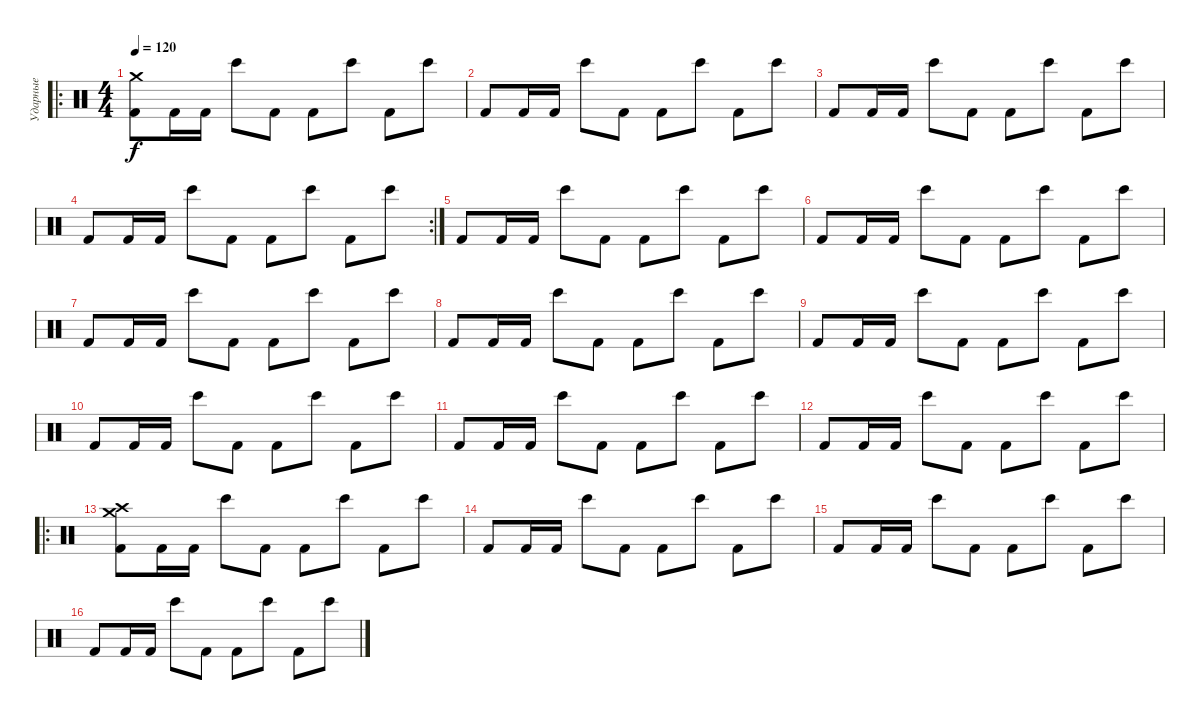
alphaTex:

\track ("Ударные" "Ударные") {instrument percussion}
\staff {score}
\articulation defaults
\ro
\ts (4 4)
\tempo 120
\clef neutral
\ks c
("Kick (hit) 2" "Crash medium (hit)").8{dy f} "Kick (hit) 2".16 "Kick (hit) 2".16 "Bongo High (hit)".8 "Kick (hit) 2".8 "Kick (hit) 2".8 "Bongo High (hit)".8 "Kick (hit) 2".8 "Bongo High (hit)".8 |
"Kick (hit) 2".8 "Kick (hit) 2".16 "Kick (hit) 2".16 "Bongo High (hit)".8 "Kick (hit) 2".8 "Kick (hit) 2".8 "Bongo High (hit)".8 "Kick (hit) 2".8 "Bongo High (hit)".8 |
"Kick (hit) 2".8 "Kick (hit) 2".16 "Kick (hit) 2".16 "Bongo High (hit)".8 "Kick (hit) 2".8 "Kick (hit) 2".8 "Bongo High (hit)".8 "Kick (hit) 2".8 "Bongo High (hit)".8 |
\rc 2 "Kick (hit) 2".8 "Kick (hit) 2".16 "Kick (hit) 2".16 "Bongo High (hit)".8 "Kick (hit) 2".8 "Kick (hit) 2".8 "Bongo High (hit)".8 "Kick (hit) 2".8 "Bongo High (hit)".8
|
"Kick (hit) 2".8 "Kick (hit) 2".16 "Kick (hit) 2".16 "Bongo High (hit)".8 "Kick (hit) 2".8 "Kick (hit) 2".8 "Bongo High (hit)".8 "Kick (hit) 2".8 "Bongo High (hit)".8 |
"Kick (hit) 2".8 "Kick (hit) 2".16 "Kick (hit) 2".16 "Bongo High (hit)".8 "Kick (hit) 2".8 "Kick (hit) 2".8 "Bongo High (hit)".8 "Kick (hit) 2".8 "Bongo High (hit)".8 |
"Kick (hit) 2".8 "Kick (hit) 2".16 "Kick (hit) 2".16 "Bongo High (hit)".8 "Kick (hit) 2".8 "Kick (hit) 2".8 "Bongo High (hit)".8 "Kick (hit) 2".8 "Bongo High (hit)".8 |
"Kick (hit) 2".8 "Kick (hit) 2".16 "Kick (hit) 2".16 "Bongo High (hit)".8 "Kick (hit) 2".8 "Kick (hit) 2".8 "Bongo High (hit)".8 "Kick (hit) 2".8 "Bongo High (hit)".8 |
"Kick (hit) 2".8 "Kick (hit) 2".16 "Kick (hit) 2".16 "Bongo High (hit)".8 "Kick (hit) 2".8 "Kick (hit) 2".8 "Bongo High (hit)".8 "Kick (hit) 2".8 "Bongo High (hit)".8 |
"Kick (hit) 2".8 "Kick (hit) 2".16 "Kick (hit) 2".16 "Bongo High (hit)".8 "Kick (hit) 2".8 "Kick (hit) 2".8 "Bongo High (hit)".8 "Kick (hit) 2".8 "Bongo High (hit)".8 |
"Kick (hit) 2".8 "Kick (hit) 2".16 "Kick (hit) 2".16 "Bongo High (hit)".8 "Kick (hit) 2".8 "Kick (hit) 2".8 "Bongo High (hit)".8 "Kick (hit) 2".8 "Bongo High (hit)".8 |
"Kick (hit) 2".8 "Kick (hit) 2".16 "Kick (hit) 2".16 "Bongo High (hit)".8 "Kick (hit) 2".8 "Kick (hit) 2".8 "Bongo High (hit)".8 "Kick (hit) 2".8 "Bongo High (hit)".8 |
\ro
("Kick (hit) 2" "Crash medium (hit)" "Crash high (hit)").8 "Kick (hit) 2".16 "Kick (hit) 2".16 "Bongo High (hit)".8 "Kick (hit) 2".8 "Kick (hit) 2".8 "Bongo High (hit)".8 "Kick (hit) 2".8 "Bongo High (hit)".8 |
"Kick (hit) 2".8 "Kick (hit) 2".16 "Kick (hit) 2".16 "Bongo High (hit)".8 "Kick (hit) 2".8 "Kick (hit) 2".8 "Bongo High (hit)".8 "Kick (hit) 2".8 "Bongo High (hit)".8 |
"Kick (hit) 2".8 "Kick (hit) 2".16 "Kick (hit) 2".16 "Bongo High (hit)".8 "Kick (hit) 2".8 "Kick (hit) 2".8 "Bongo High (hit)".8 "Kick (hit) 2".8 "Bongo High (hit)".8 |
"Kick (hit) 2".8 "Kick (hit) 2".16 "Kick (hit) 2".16 "Bongo High (hit)".8 "Kick (hit) 2".8 "Kick (hit) 2".8 "Bongo High (hit)".8 "Kick (hit) 2".8 "Bongo High (hit)".8
